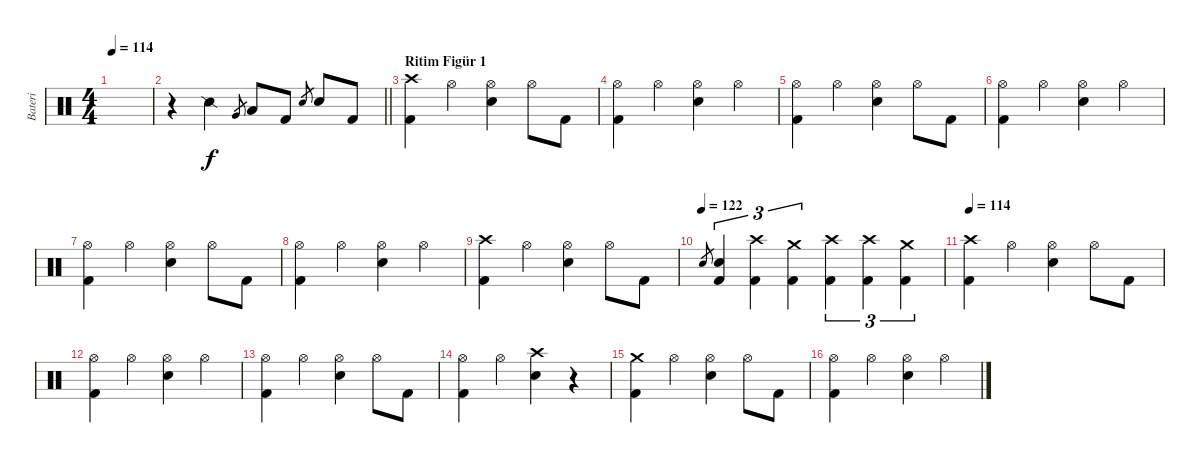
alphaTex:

\track ("Bateri" "Bateri") {instrument percussion}
\staff {score}
\articulation defaults
\ts (4 4)
\tempo 114
\clef neutral
\ks c
|
\barLineRight lightlight
r.4 "Snare (side stick) 2".4 "Very Low Tom (hit)".8{gr} "Low Tom (hit)".8 "Kick (hit) 2".8 "Snare (hit) 2".8{gr} "Snare (hit) 2".8 "Kick (hit) 2".8 |
\section ("" "Ritim Figür 1")
("Crash high (hit)" "Kick (hit) 2").4 "Hi-Hat (open)".4 ("Hi-Hat (open)" "Snare (hit) 2").4 "Hi-Hat (open)".8 "Kick (hit) 2".8 |
("Hi-Hat (open)" "Kick (hit) 2").4 "Hi-Hat (open)".4 ("Hi-Hat (open)" "Snare (hit) 2").4 "Hi-Hat (open)".4 |
("Hi-Hat (open)" "Kick (hit) 2").4 "Hi-Hat (open)".4 ("Hi-Hat (open)" "Snare (hit) 2").4 "Hi-Hat (open)".8 "Kick (hit) 2".8 |
("Hi-Hat (open)" "Kick (hit) 2").4 "Hi-Hat (open)".4 ("Hi-Hat (open)" "Snare (hit) 2").4 "Hi-Hat (open)".4 |
("Hi-Hat (open)" "Kick (hit) 2").4 "Hi-Hat (open)".4 ("Hi-Hat (open)" "Snare (hit) 2").4 "Hi-Hat (open)".8 "Kick (hit) 2".8 |
("Hi-Hat (open)" "Kick (hit) 2").4 "Hi-Hat (open)".4 ("Hi-Hat (open)" "Snare (hit) 2").4 "Hi-Hat (open)".4 |
("Crash high (hit)" "Kick (hit) 2").4 "Hi-Hat (open)".4 ("Hi-Hat (open)" "Snare (hit) 2").4 "Hi-Hat (open)".8 "Kick (hit) 2".8 |
\tempo (122)
"Snare (hit) 2".8{gr} ("Snare (hit) 2" "Kick (hit) 2").4{tu (3 2)} ("Crash high (hit)" "Kick (hit) 2").4{tu (3 2)} ("Crash medium (hit)" "Kick (hit) 2").4{tu (3 2)} ("Crash high (hit)" "Kick (hit) 2").4{tu (3 2)} ("Crash high (hit)" "Kick (hit) 2").4{tu (3 2)} ("Crash medium (hit)" "Kick (hit) 2").4{tu (3 2)} |
\tempo 114
("Crash high (hit)" "Kick (hit) 2").4 "Hi-Hat (open)".4 ("Hi-Hat (open)" "Snare (hit) 2").4 "Hi-Hat (open)".8 "Kick (hit) 2".8 |
("Hi-Hat (open)" "Kick (hit) 2").4 "Hi-Hat (open)".4 ("Hi-Hat (open)" "Snare (hit) 2").4 "Hi-Hat (open)".4 |
("Hi-Hat (open)" "Kick (hit) 2").4 "Hi-Hat (open)".4 ("Hi-Hat (open)" "Snare (hit) 2").4 "Hi-Hat (open)".8 "Kick (hit) 2".8 |
("Hi-Hat (open)" "Kick (hit) 2").4 "Hi-Hat (open)".4 ("Crash high (hit)" "Snare (hit) 2").4 r.4 |
("Crash medium (hit)" "Kick (hit) 2").4 "Hi-Hat (open)".4 ("Hi-Hat (open)" "Snare (hit) 2").4 "Hi-Hat (open)".8 "Kick (hit) 2".8 |
("Hi-Hat (open)" "Kick (hit) 2").4 "Hi-Hat (open)".4 ("Hi-Hat (open)" "Snare (hit) 2").4 "Hi-Hat (open)".4
